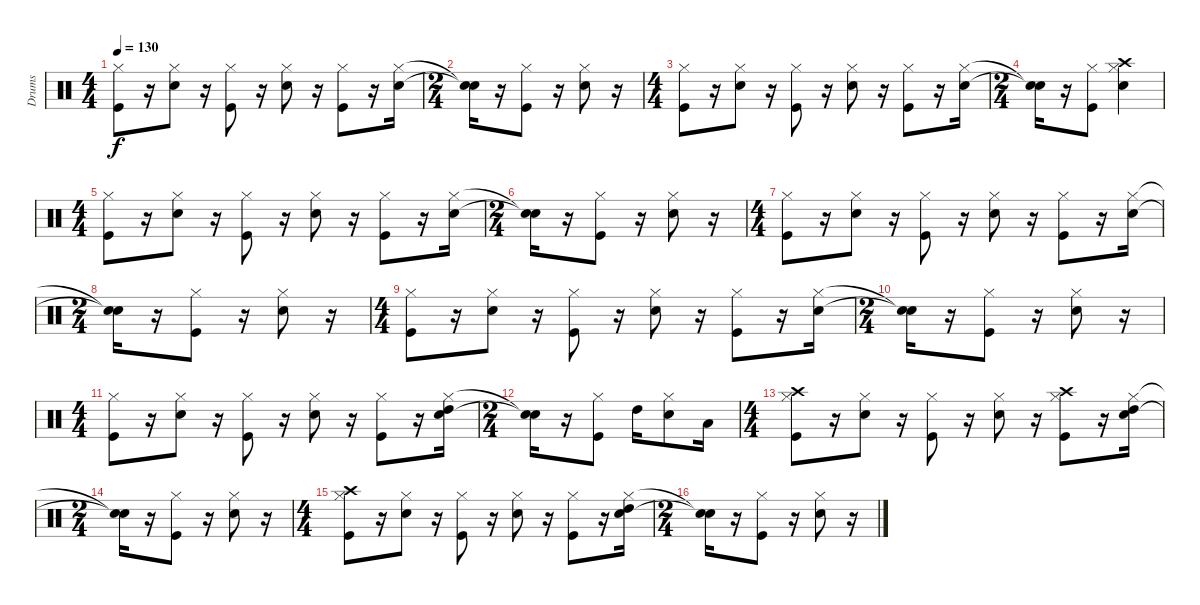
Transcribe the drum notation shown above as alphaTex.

\track ("Drums" "Drums") {instrument percussion}
\staff {score}
\articulation defaults
\ts (4 4)
\tempo 130
\clef neutral
\ks c
("Hi-Hat (closed)" "Kick (hit)").8{dy f} r.16 ("Hi-Hat (closed)" "Snare (hit) 2").8 r.16 ("Hi-Hat (closed)" "Kick (hit)").8 r.16 ("Hi-Hat (closed)" "Snare (hit) 2").8 r.16 ("Hi-Hat (closed)" "Kick (hit)").8 r.16 ("Hi-Hat (closed)" "Snare (hit) 2").16 |
\ts (2 4)
("Snare (hit)"{t} "Snare (hit)"{t}).16 r.16 ("Hi-Hat (closed)" "Kick (hit)").8 r.16 ("Hi-Hat (closed)" "Snare (hit) 2").8 r.16 |
\ts (4 4)
("Hi-Hat (closed)" "Kick (hit)").8 r.16 ("Hi-Hat (closed)" "Snare (hit) 2").8 r.16 ("Hi-Hat (closed)" "Kick (hit)").8 r.16 ("Hi-Hat (closed)" "Snare (hit) 2").8 r.16 ("Hi-Hat (closed)" "Kick (hit)").8 r.16 ("Hi-Hat (closed)" "Snare (hit) 2").16 |
\ts (2 4)
("Snare (hit)"{t} "Snare (hit)"{t}).16 r.16 ("Hi-Hat (closed)" "Kick (hit)").8 ("Hi-Hat (closed)" "Snare (hit) 2" "Crash high (hit)").4 |
\ts (4 4)
("Hi-Hat (closed)" "Kick (hit)").8 r.16 ("Hi-Hat (closed)" "Snare (hit) 2").8 r.16 ("Hi-Hat (closed)" "Kick (hit)").8 r.16 ("Hi-Hat (closed)" "Snare (hit) 2").8 r.16 ("Hi-Hat (closed)" "Kick (hit)").8 r.16 ("Hi-Hat (closed)" "Snare (hit) 2").16 |
\ts (2 4)
("Snare (hit)"{t} "Snare (hit)"{t}).16 r.16 ("Hi-Hat (closed)" "Kick (hit)").8 r.16 ("Hi-Hat (closed)" "Snare (hit) 2").8 r.16 |
\ts (4 4)
("Hi-Hat (closed)" "Kick (hit)").8 r.16 ("Hi-Hat (closed)" "Snare (hit) 2").8 r.16 ("Hi-Hat (closed)" "Kick (hit)").8 r.16 ("Hi-Hat (closed)" "Snare (hit) 2").8 r.16 ("Hi-Hat (closed)" "Kick (hit)").8 r.16 ("Hi-Hat (closed)" "Snare (hit) 2").16 |
\ts (2 4)
("Snare (hit)"{t} "Snare (hit)"{t}).16 r.16 ("Hi-Hat (closed)" "Kick (hit)").8 r.16 ("Hi-Hat (closed)" "Snare (hit) 2").8 r.16 |
\ts (4 4)
("Hi-Hat (closed)" "Kick (hit)").8 r.16 ("Hi-Hat (closed)" "Snare (hit) 2").8 r.16 ("Hi-Hat (closed)" "Kick (hit)").8 r.16 ("Hi-Hat (closed)" "Snare (hit) 2").8 r.16 ("Hi-Hat (closed)" "Kick (hit)").8 r.16 ("Hi-Hat (closed)" "Snare (hit) 2").16 |
\ts (2 4)
("Snare (hit)"{t} "Snare (hit)"{t}).16 r.16 ("Hi-Hat (closed)" "Kick (hit)").8 r.16 ("Hi-Hat (closed)" "Snare (hit) 2").8 r.16 |
\ts (4 4)
("Hi-Hat (closed)" "Kick (hit)").8 r.16 ("Hi-Hat (closed)" "Snare (hit) 2").8 r.16 ("Hi-Hat (closed)" "Kick (hit)").8 r.16 ("Hi-Hat (closed)" "Snare (hit) 2").8 r.16 ("Hi-Hat (closed)" "Kick (hit)").8 r.16 ("Hi-Hat (closed)" "Snare (hit) 2" "High Tom (hit)").16 |
\ts (2 4)
("Snare (hit)"{t} "Snare (hit)"{t}).16 r.16 ("Hi-Hat (closed)" "Kick (hit)").8 "High Tom (hit)".16 ("Hi-Hat (closed)" "Snare (hit) 2").8 "Low Tom (hit)".16 |
\ts (4 4)
("Hi-Hat (closed)" "Kick (hit)" "Crash high (hit)").8 r.16 ("Hi-Hat (closed)" "Snare (hit) 2").8 r.16 ("Hi-Hat (closed)" "Kick (hit)").8 r.16 ("Hi-Hat (closed)" "Snare (hit) 2").8 r.16 ("Hi-Hat (closed)" "Kick (hit)" "Crash high (hit)").8 r.16 ("Hi-Hat (closed)" "Snare (hit) 2" "High Tom (hit)").16 |
\ts (2 4)
("Snare (hit)"{t} "Snare (hit)"{t}).16 r.16 ("Hi-Hat (closed)" "Kick (hit)").8 r.16 ("Hi-Hat (closed)" "Snare (hit) 2").8 r.16 |
\ts (4 4)
("Hi-Hat (closed)" "Kick (hit)" "Crash high (hit)").8 r.16 ("Hi-Hat (closed)" "Snare (hit) 2").8 r.16 ("Hi-Hat (closed)" "Kick (hit)").8 r.16 ("Hi-Hat (closed)" "Snare (hit) 2").8 r.16 ("Hi-Hat (closed)" "Kick (hit)").8 r.16 ("Hi-Hat (closed)" "Snare (hit) 2" "High Tom (hit)").16 |
\ts (2 4)
("Snare (hit)"{t} "Snare (hit)"{t}).16 r.16 ("Hi-Hat (closed)" "Kick (hit)").8 r.16 ("Hi-Hat (closed)" "Snare (hit) 2").8 r.16
